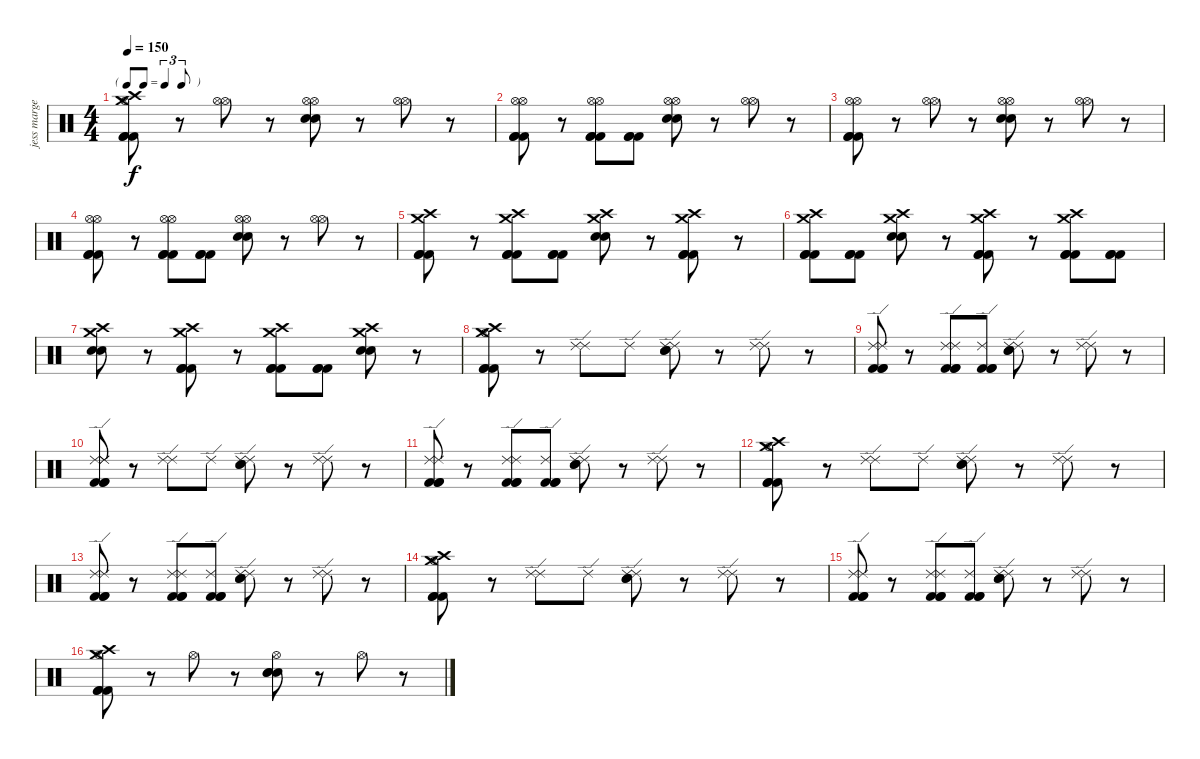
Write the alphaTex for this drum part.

\track ("jess margera" "jess marge") {instrument percussion}
\staff {score}
\articulation defaults
\ts (4 4)
\tf triplet8th
\tempo 150
\clef neutral
\ks c
("Hi-Hat (open)" "Crash high (hit)" "Crash medium (hit)" "Kick (hit) 2" "Kick (hit) 2" "Kick (hit) 2").8{dy f} r.8 ("Hi-Hat (open)" "Hi-Hat (open)").8 r.8 ("Hi-Hat (open)" "Hi-Hat (open)" "Electric Snare (hit)" "Electric Snare (hit)").8 r.8 ("Hi-Hat (open)" "Hi-Hat (open)").8 r.8 |
("Hi-Hat (open)" "Hi-Hat (open)" "Kick (hit) 2" "Kick (hit) 2" "Kick (hit) 2").8 r.8 ("Hi-Hat (open)" "Hi-Hat (open)" "Kick (hit) 2" "Kick (hit) 2" "Kick (hit) 2").8 ("Kick (hit) 2" "Kick (hit) 2" "Kick (hit) 2").8 ("Hi-Hat (open)" "Hi-Hat (open)" "Electric Snare (hit)" "Electric Snare (hit)").8 r.8 ("Hi-Hat (open)" "Hi-Hat (open)").8 r.8 |
("Hi-Hat (open)" "Hi-Hat (open)" "Kick (hit) 2" "Kick (hit) 2" "Kick (hit) 2").8 r.8 ("Hi-Hat (open)" "Hi-Hat (open)").8 r.8 ("Hi-Hat (open)" "Hi-Hat (open)" "Electric Snare (hit)" "Electric Snare (hit)").8 r.8 ("Hi-Hat (open)" "Hi-Hat (open)").8 r.8 |
("Hi-Hat (open)" "Hi-Hat (open)" "Kick (hit) 2" "Kick (hit) 2" "Kick (hit) 2").8 r.8 ("Hi-Hat (open)" "Hi-Hat (open)" "Kick (hit) 2" "Kick (hit) 2" "Kick (hit) 2").8 ("Kick (hit) 2" "Kick (hit) 2" "Kick (hit) 2").8 ("Hi-Hat (open)" "Hi-Hat (open)" "Electric Snare (hit)" "Electric Snare (hit)").8 r.8 ("Hi-Hat (open)" "Hi-Hat (open)").8 r.8 |
("Crash high (hit)" "Crash medium (hit)" "Kick (hit) 2" "Kick (hit) 2" "Kick (hit) 2").8 r.8 ("Crash high (hit)" "Crash medium (hit)" "Kick (hit) 2" "Kick (hit) 2" "Kick (hit) 2").8 ("Kick (hit) 2" "Kick (hit) 2" "Kick (hit) 2").8 ("Crash high (hit)" "Crash medium (hit)" "Electric Snare (hit)" "Electric Snare (hit)").8 r.8 ("Crash high (hit)" "Crash medium (hit)" "Kick (hit) 2" "Kick (hit) 2" "Kick (hit) 2").8 r.8 |
("Crash high (hit)" "Crash medium (hit)" "Kick (hit) 2" "Kick (hit) 2" "Kick (hit) 2").8 ("Kick (hit) 2" "Kick (hit) 2" "Kick (hit) 2").8 ("Crash high (hit)" "Crash medium (hit)" "Electric Snare (hit)" "Electric Snare (hit)").8 r.8 ("Crash high (hit)" "Crash medium (hit)" "Kick (hit) 2" "Kick (hit) 2" "Kick (hit) 2").8 r.8 ("Crash high (hit)" "Crash medium (hit)" "Kick (hit) 2" "Kick (hit) 2" "Kick (hit) 2").8 ("Kick (hit) 2" "Kick (hit) 2" "Kick (hit) 2").8 |
("Crash high (hit)" "Crash medium (hit)" "Electric Snare (hit)" "Electric Snare (hit)").8 r.8 ("Crash high (hit)" "Crash medium (hit)" "Kick (hit) 2" "Kick (hit) 2" "Kick (hit) 2").8 r.8 ("Crash high (hit)" "Crash medium (hit)" "Kick (hit) 2" "Kick (hit) 2" "Kick (hit) 2").8 ("Kick (hit) 2" "Kick (hit) 2" "Kick (hit) 2").8 ("Crash high (hit)" "Crash medium (hit)" "Electric Snare (hit)" "Electric Snare (hit)").8 r.8 |
("Hi-Hat (open)" "Crash high (hit)" "Crash medium (hit)" "Kick (hit) 2" "Kick (hit) 2" "Kick (hit) 2").8 r.8 ("Ride (edge) 2" "Ride (edge) 2").8 "Ride (edge) 2".8 ("Ride (edge) 2" "Ride (edge) 2" "Electric Snare (hit)" "Electric Snare (hit)").8 r.8 ("Ride (edge) 2" "Ride (edge) 2").8 r.8 |
("Ride (edge) 2" "Ride (edge) 2" "Kick (hit) 2" "Kick (hit) 2" "Kick (hit) 2").8 r.8 ("Ride (edge) 2" "Ride (edge) 2" "Kick (hit) 2" "Kick (hit) 2" "Kick (hit) 2").8 ("Ride (edge) 2" "Kick (hit) 2" "Kick (hit) 2" "Kick (hit) 2").8 ("Ride (edge) 2" "Ride (edge) 2" "Electric Snare (hit)" "Electric Snare (hit)").8 r.8 ("Ride (edge) 2" "Ride (edge) 2").8 r.8 |
("Ride (edge) 2" "Ride (edge) 2" "Ride (edge) 2" "Kick (hit) 2" "Kick (hit) 2" "Kick (hit) 2").8 r.8 ("Ride (edge) 2" "Ride (edge) 2").8 "Ride (edge) 2".8 ("Ride (edge) 2" "Ride (edge) 2" "Electric Snare (hit)" "Electric Snare (hit)").8 r.8 ("Ride (edge) 2" "Ride (edge) 2").8 r.8 |
("Ride (edge) 2" "Ride (edge) 2" "Kick (hit) 2" "Kick (hit) 2" "Kick (hit) 2").8 r.8 ("Ride (edge) 2" "Ride (edge) 2" "Kick (hit) 2" "Kick (hit) 2" "Kick (hit) 2").8 ("Ride (edge) 2" "Kick (hit) 2" "Kick (hit) 2" "Kick (hit) 2").8 ("Ride (edge) 2" "Ride (edge) 2" "Electric Snare (hit)" "Electric Snare (hit)").8 r.8 ("Ride (edge) 2" "Ride (edge) 2").8 r.8 |
("Hi-Hat (open)" "Crash high (hit)" "Crash medium (hit)" "Kick (hit) 2" "Kick (hit) 2" "Kick (hit) 2").8 r.8 ("Ride (edge) 2" "Ride (edge) 2").8 "Ride (edge) 2".8 ("Ride (edge) 2" "Ride (edge) 2" "Electric Snare (hit)" "Electric Snare (hit)").8 r.8 ("Ride (edge) 2" "Ride (edge) 2").8 r.8 |
("Ride (edge) 2" "Ride (edge) 2" "Kick (hit) 2" "Kick (hit) 2" "Kick (hit) 2").8 r.8 ("Ride (edge) 2" "Ride (edge) 2" "Kick (hit) 2" "Kick (hit) 2" "Kick (hit) 2").8 ("Ride (edge) 2" "Kick (hit) 2" "Kick (hit) 2" "Kick (hit) 2").8 ("Ride (edge) 2" "Ride (edge) 2" "Electric Snare (hit)" "Electric Snare (hit)").8 r.8 ("Ride (edge) 2" "Ride (edge) 2").8 r.8 |
("Hi-Hat (open)" "Crash high (hit)" "Crash medium (hit)" "Kick (hit) 2" "Kick (hit) 2" "Kick (hit) 2").8 r.8 ("Ride (edge) 2" "Ride (edge) 2").8 "Ride (edge) 2".8 ("Ride (edge) 2" "Ride (edge) 2" "Electric Snare (hit)" "Electric Snare (hit)").8 r.8 ("Ride (edge) 2" "Ride (edge) 2").8 r.8 |
("Ride (edge) 2" "Ride (edge) 2" "Kick (hit) 2" "Kick (hit) 2" "Kick (hit) 2").8 r.8 ("Ride (edge) 2" "Ride (edge) 2" "Kick (hit) 2" "Kick (hit) 2" "Kick (hit) 2").8 ("Ride (edge) 2" "Kick (hit) 2" "Kick (hit) 2" "Kick (hit) 2").8 ("Ride (edge) 2" "Ride (edge) 2" "Electric Snare (hit)" "Electric Snare (hit)").8 r.8 ("Ride (edge) 2" "Ride (edge) 2").8 r.8 |
("Hi-Hat (open)" "Crash medium (hit)" "Crash high (hit)" "Kick (hit) 2" "Kick (hit) 2" "Kick (hit) 2").8 r.8 "Hi-Hat (open)".8 r.8 ("Hi-Hat (open)" "Electric Snare (hit)" "Electric Snare (hit)" "Electric Snare (hit)").8 r.8 "Hi-Hat (open)".8 r.8
